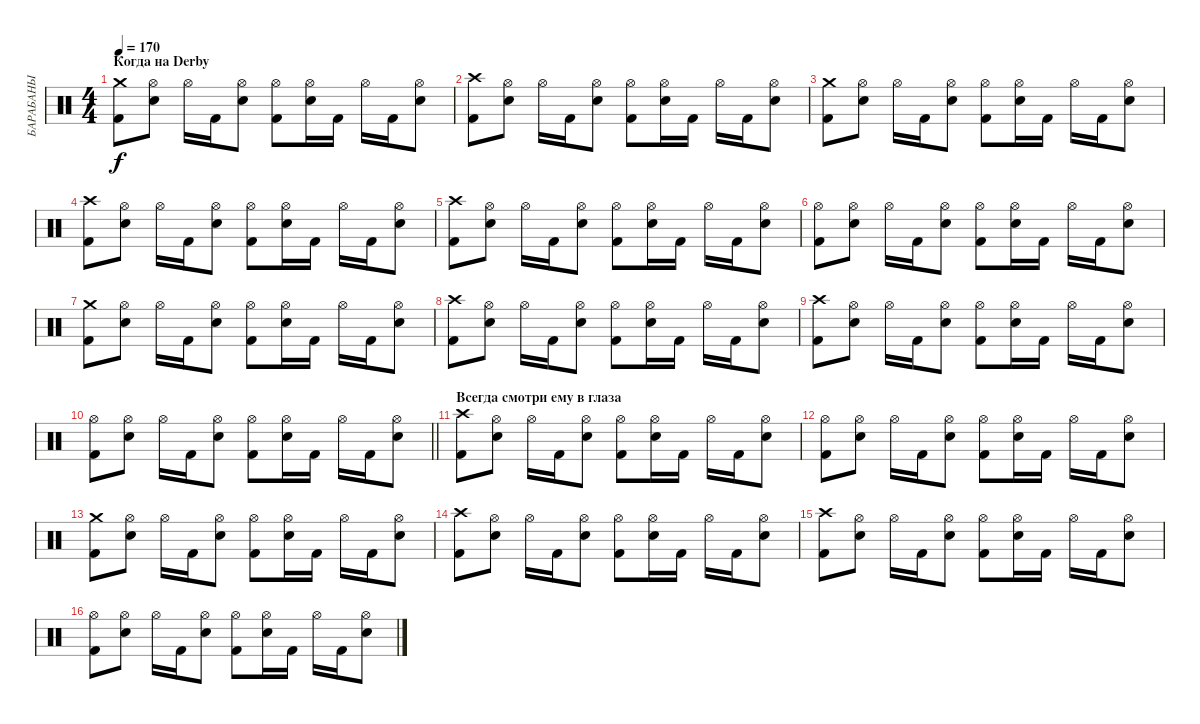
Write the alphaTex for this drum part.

\track ("БАРАБАНЫ" "БАРАБАНЫ") {instrument percussion}
\staff {score}
\articulation defaults
\ts (4 4)
\section ("" "Когда на Derby")
\tempo 170
\clef neutral
\ks c
("Kick (hit) 2" "Crash medium (hit)").8{dy f} ("Electric Snare (hit)" "Hi-Hat (open)").8 "Hi-Hat (open)".16 "Kick (hit) 2".16 ("Electric Snare (hit)" "Hi-Hat (open)").8 ("Kick (hit) 2" "Hi-Hat (open)").8 ("Electric Snare (hit)" "Hi-Hat (open)").16 "Kick (hit) 2".16 "Hi-Hat (open)".16 "Kick (hit) 2".16 ("Electric Snare (hit)" "Hi-Hat (open)").8 |
("Kick (hit) 2" "Crash high (hit)").8 ("Electric Snare (hit)" "Hi-Hat (open)").8 "Hi-Hat (open)".16 "Kick (hit) 2".16 ("Electric Snare (hit)" "Hi-Hat (open)").8 ("Kick (hit) 2" "Hi-Hat (open)").8 ("Electric Snare (hit)" "Hi-Hat (open)").16 "Kick (hit) 2".16 "Hi-Hat (open)".16 "Kick (hit) 2".16 ("Electric Snare (hit)" "Hi-Hat (open)").8 |
("Kick (hit) 2" "Crash medium (hit)").8 ("Electric Snare (hit)" "Hi-Hat (open)").8 "Hi-Hat (open)".16 "Kick (hit) 2".16 ("Electric Snare (hit)" "Hi-Hat (open)").8 ("Kick (hit) 2" "Hi-Hat (open)").8 ("Electric Snare (hit)" "Hi-Hat (open)").16 "Kick (hit) 2".16 "Hi-Hat (open)".16 "Kick (hit) 2".16 ("Electric Snare (hit)" "Hi-Hat (open)").8 |
("Kick (hit) 2" "Crash high (hit)").8 ("Electric Snare (hit)" "Hi-Hat (open)").8 "Hi-Hat (open)".16 "Kick (hit) 2".16 ("Electric Snare (hit)" "Hi-Hat (open)").8 ("Kick (hit) 2" "Hi-Hat (open)").8 ("Electric Snare (hit)" "Hi-Hat (open)").16 "Kick (hit) 2".16 "Hi-Hat (open)".16 "Kick (hit) 2".16 ("Electric Snare (hit)" "Hi-Hat (open)").8 |
("Kick (hit) 2" "Crash high (hit)").8 ("Electric Snare (hit)" "Hi-Hat (open)").8 "Hi-Hat (open)".16 "Kick (hit) 2".16 ("Electric Snare (hit)" "Hi-Hat (open)").8 ("Kick (hit) 2" "Hi-Hat (open)").8 ("Electric Snare (hit)" "Hi-Hat (open)").16 "Kick (hit) 2".16 "Hi-Hat (open)".16 "Kick (hit) 2".16 ("Electric Snare (hit)" "Hi-Hat (open)").8 |
("Kick (hit) 2" "Hi-Hat (open)").8 ("Electric Snare (hit)" "Hi-Hat (open)").8 "Hi-Hat (open)".16 "Kick (hit) 2".16 ("Electric Snare (hit)" "Hi-Hat (open)").8 ("Kick (hit) 2" "Hi-Hat (open)").8 ("Electric Snare (hit)" "Hi-Hat (open)").16 "Kick (hit) 2".16 "Hi-Hat (open)".16 "Kick (hit) 2".16 ("Electric Snare (hit)" "Hi-Hat (open)").8 |
("Kick (hit) 2" "Crash medium (hit)").8 ("Electric Snare (hit)" "Hi-Hat (open)").8 "Hi-Hat (open)".16 "Kick (hit) 2".16 ("Electric Snare (hit)" "Hi-Hat (open)").8 ("Kick (hit) 2" "Hi-Hat (open)").8 ("Electric Snare (hit)" "Hi-Hat (open)").16 "Kick (hit) 2".16 "Hi-Hat (open)".16 "Kick (hit) 2".16 ("Electric Snare (hit)" "Hi-Hat (open)").8 |
("Kick (hit) 2" "Crash high (hit)").8 ("Electric Snare (hit)" "Hi-Hat (open)").8 "Hi-Hat (open)".16 "Kick (hit) 2".16 ("Electric Snare (hit)" "Hi-Hat (open)").8 ("Kick (hit) 2" "Hi-Hat (open)").8 ("Electric Snare (hit)" "Hi-Hat (open)").16 "Kick (hit) 2".16 "Hi-Hat (open)".16 "Kick (hit) 2".16 ("Electric Snare (hit)" "Hi-Hat (open)").8 |
("Kick (hit) 2" "Crash high (hit)").8 ("Electric Snare (hit)" "Hi-Hat (open)").8 "Hi-Hat (open)".16 "Kick (hit) 2".16 ("Electric Snare (hit)" "Hi-Hat (open)").8 ("Kick (hit) 2" "Hi-Hat (open)").8 ("Electric Snare (hit)" "Hi-Hat (open)").16 "Kick (hit) 2".16 "Hi-Hat (open)".16 "Kick (hit) 2".16 ("Electric Snare (hit)" "Hi-Hat (open)").8 |
\barLineRight lightlight
("Kick (hit) 2" "Hi-Hat (open)").8 ("Electric Snare (hit)" "Hi-Hat (open)").8 "Hi-Hat (open)".16 "Kick (hit) 2".16 ("Electric Snare (hit)" "Hi-Hat (open)").8 ("Kick (hit) 2" "Hi-Hat (open)").8 ("Electric Snare (hit)" "Hi-Hat (open)").16 "Kick (hit) 2".16 "Hi-Hat (open)".16 "Kick (hit) 2".16 ("Electric Snare (hit)" "Hi-Hat (open)").8 |
\section ("" "Всегда смотри ему в глаза")
("Kick (hit) 2" "Crash high (hit)").8 ("Electric Snare (hit)" "Hi-Hat (open)").8 "Hi-Hat (open)".16 "Kick (hit) 2".16 ("Electric Snare (hit)" "Hi-Hat (open)").8 ("Kick (hit) 2" "Hi-Hat (open)").8 ("Electric Snare (hit)" "Hi-Hat (open)").16 "Kick (hit) 2".16 "Hi-Hat (open)".16 "Kick (hit) 2".16 ("Electric Snare (hit)" "Hi-Hat (open)").8 |
("Kick (hit) 2" "Hi-Hat (open)").8 ("Electric Snare (hit)" "Hi-Hat (open)").8 "Hi-Hat (open)".16 "Kick (hit) 2".16 ("Electric Snare (hit)" "Hi-Hat (open)").8 ("Kick (hit) 2" "Hi-Hat (open)").8 ("Electric Snare (hit)" "Hi-Hat (open)").16 "Kick (hit) 2".16 "Hi-Hat (open)".16 "Kick (hit) 2".16 ("Electric Snare (hit)" "Hi-Hat (open)").8 |
("Kick (hit) 2" "Crash medium (hit)").8 ("Electric Snare (hit)" "Hi-Hat (open)").8 "Hi-Hat (open)".16 "Kick (hit) 2".16 ("Electric Snare (hit)" "Hi-Hat (open)").8 ("Kick (hit) 2" "Hi-Hat (open)").8 ("Electric Snare (hit)" "Hi-Hat (open)").16 "Kick (hit) 2".16 "Hi-Hat (open)".16 "Kick (hit) 2".16 ("Electric Snare (hit)" "Hi-Hat (open)").8 |
("Kick (hit) 2" "Crash high (hit)").8 ("Electric Snare (hit)" "Hi-Hat (open)").8 "Hi-Hat (open)".16 "Kick (hit) 2".16 ("Electric Snare (hit)" "Hi-Hat (open)").8 ("Kick (hit) 2" "Hi-Hat (open)").8 ("Electric Snare (hit)" "Hi-Hat (open)").16 "Kick (hit) 2".16 "Hi-Hat (open)".16 "Kick (hit) 2".16 ("Electric Snare (hit)" "Hi-Hat (open)").8 |
("Kick (hit) 2" "Crash high (hit)").8 ("Electric Snare (hit)" "Hi-Hat (open)").8 "Hi-Hat (open)".16 "Kick (hit) 2".16 ("Electric Snare (hit)" "Hi-Hat (open)").8 ("Kick (hit) 2" "Hi-Hat (open)").8 ("Electric Snare (hit)" "Hi-Hat (open)").16 "Kick (hit) 2".16 "Hi-Hat (open)".16 "Kick (hit) 2".16 ("Electric Snare (hit)" "Hi-Hat (open)").8 |
("Kick (hit) 2" "Hi-Hat (open)").8 ("Electric Snare (hit)" "Hi-Hat (open)").8 "Hi-Hat (open)".16 "Kick (hit) 2".16 ("Electric Snare (hit)" "Hi-Hat (open)").8 ("Kick (hit) 2" "Hi-Hat (open)").8 ("Electric Snare (hit)" "Hi-Hat (open)").16 "Kick (hit) 2".16 "Hi-Hat (open)".16 "Kick (hit) 2".16 ("Electric Snare (hit)" "Hi-Hat (open)").8
